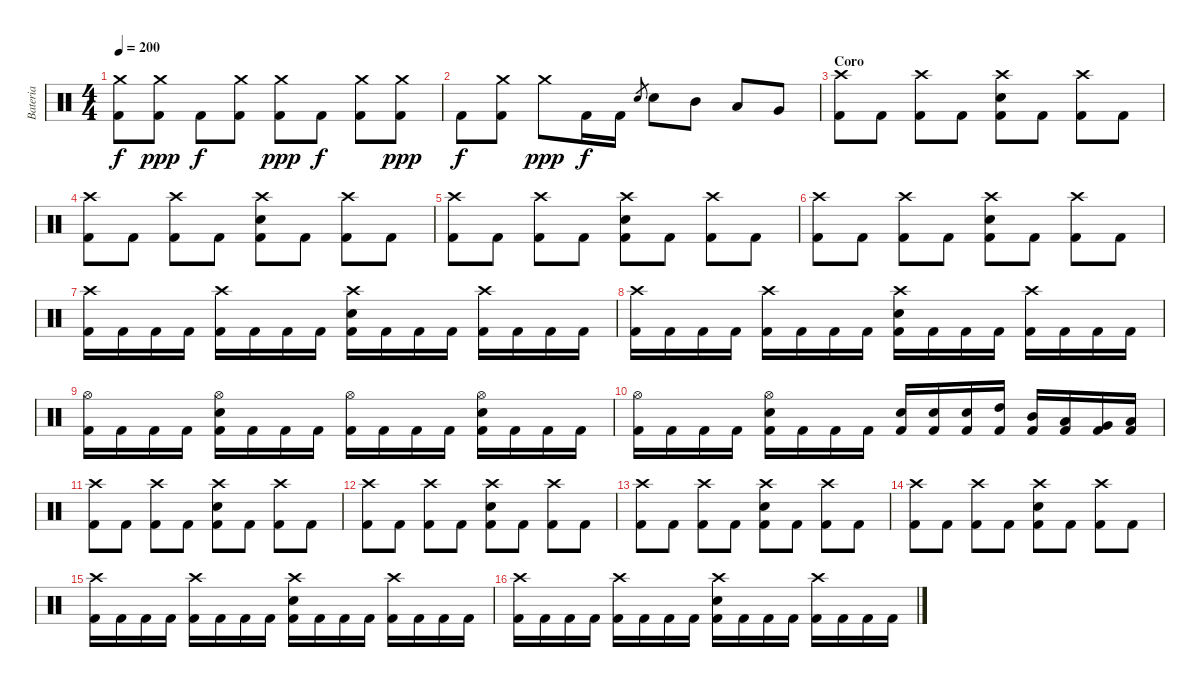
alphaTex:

\track ("Bateria" "Bateria") {instrument percussion}
\staff {score}
\articulation defaults
\ts (4 4)
\tempo 200
\clef neutral
\ks c
("Crash medium (hit)" "Kick (hit) 2").8{dy f} ("Crash medium (hit)" "Kick (hit) 2").8{dy ppp} "Kick (hit) 2".8{dy f} ("Crash medium (hit)" "Kick (hit) 2").8 ("Crash medium (hit)" "Kick (hit) 2").8{dy ppp} "Kick (hit) 2".8{dy f} ("Crash medium (hit)" "Kick (hit) 2").8 ("Crash medium (hit)" "Kick (hit) 2").8{dy ppp} |
"Kick (hit) 2".8{dy f} ("Crash medium (hit)" "Kick (hit) 2").8 "Crash medium (hit)".8{dy ppp} "Kick (hit) 2".16{dy f} "Kick (hit) 2".16 "Electric Snare (hit)".8{gr} "Electric Snare (hit)".8 "Mid Tom (hit)".8 "Low Tom (hit)".8 "Very Low Tom (hit)".8 |
\section ("" "Coro")
("Crash high (hit)" "Kick (hit) 2").8 "Kick (hit) 2".8 ("Crash high (hit)" "Kick (hit) 2").8 "Kick (hit) 2".8 ("Crash high (hit)" "Electric Snare (hit)" "Kick (hit) 2").8 "Kick (hit) 2".8 ("Crash high (hit)" "Kick (hit) 2").8 "Kick (hit) 2".8 |
("Crash high (hit)" "Kick (hit) 2").8 "Kick (hit) 2".8 ("Crash high (hit)" "Kick (hit) 2").8 "Kick (hit) 2".8 ("Crash high (hit)" "Electric Snare (hit)" "Kick (hit) 2").8 "Kick (hit) 2".8 ("Crash high (hit)" "Kick (hit) 2").8 "Kick (hit) 2".8 |
("Crash high (hit)" "Kick (hit) 2").8 "Kick (hit) 2".8 ("Crash high (hit)" "Kick (hit) 2").8 "Kick (hit) 2".8 ("Crash high (hit)" "Electric Snare (hit)" "Kick (hit) 2").8 "Kick (hit) 2".8 ("Crash high (hit)" "Kick (hit) 2").8 "Kick (hit) 2".8 |
("Crash high (hit)" "Kick (hit) 2").8 "Kick (hit) 2".8 ("Crash high (hit)" "Kick (hit) 2").8 "Kick (hit) 2".8 ("Crash high (hit)" "Electric Snare (hit)" "Kick (hit) 2").8 "Kick (hit) 2".8 ("Crash high (hit)" "Kick (hit) 2").8 "Kick (hit) 2".8 |
("Crash high (hit)" "Kick (hit) 2").16 "Kick (hit) 2".16 "Kick (hit) 2".16 "Kick (hit) 2".16 ("Crash high (hit)" "Kick (hit) 2").16 "Kick (hit) 2".16 "Kick (hit) 2".16 "Kick (hit) 2".16 ("Crash high (hit)" "Electric Snare (hit)" "Kick (hit) 2").16 "Kick (hit) 2".16 "Kick (hit) 2".16 "Kick (hit) 2".16 ("Crash high (hit)" "Kick (hit) 2").16 "Kick (hit) 2".16 "Kick (hit) 2".16 "Kick (hit) 2".16 |
("Crash high (hit)" "Kick (hit) 2").16 "Kick (hit) 2".16 "Kick (hit) 2".16 "Kick (hit) 2".16 ("Crash high (hit)" "Kick (hit) 2").16 "Kick (hit) 2".16 "Kick (hit) 2".16 "Kick (hit) 2".16 ("Crash high (hit)" "Electric Snare (hit)" "Kick (hit) 2").16 "Kick (hit) 2".16 "Kick (hit) 2".16 "Kick (hit) 2".16 ("Crash high (hit)" "Kick (hit) 2").16 "Kick (hit) 2".16 "Kick (hit) 2".16 "Kick (hit) 2".16 |
("Hi-Hat (open)" "Kick (hit) 2").16 "Kick (hit) 2".16 "Kick (hit) 2".16 "Kick (hit) 2".16 ("Hi-Hat (open)" "Electric Snare (hit)" "Kick (hit) 2").16 "Kick (hit) 2".16 "Kick (hit) 2".16 "Kick (hit) 2".16 ("Hi-Hat (open)" "Kick (hit) 2").16 "Kick (hit) 2".16 "Kick (hit) 2".16 "Kick (hit) 2".16 ("Hi-Hat (open)" "Electric Snare (hit)" "Kick (hit) 2").16 "Kick (hit) 2".16 "Kick (hit) 2".16 "Kick (hit) 2".16 |
("Hi-Hat (open)" "Kick (hit) 2").16 "Kick (hit) 2".16 "Kick (hit) 2".16 "Kick (hit) 2".16 ("Hi-Hat (open)" "Electric Snare (hit)" "Kick (hit) 2").16 "Kick (hit) 2".16 "Kick (hit) 2".16 "Kick (hit) 2".16 ("Electric Snare (hit)" "Kick (hit) 2").16 ("Electric Snare (hit)" "Kick (hit) 2").16 ("Electric Snare (hit)" "Kick (hit) 2").16 ("High Tom (hit)" "Kick (hit) 2").16 ("Mid Tom (hit)" "Kick (hit) 2").16 ("Low Tom (hit)" "Kick (hit) 2").16 ("Very Low Tom (hit)" "Kick (hit) 2").16 ("Low Floor Tom (hit)" "Kick (hit) 2").16 |
("Crash high (hit)" "Kick (hit) 2").8 "Kick (hit) 2".8 ("Crash high (hit)" "Kick (hit) 2").8 "Kick (hit) 2".8 ("Crash high (hit)" "Electric Snare (hit)" "Kick (hit) 2").8 "Kick (hit) 2".8 ("Crash high (hit)" "Kick (hit) 2").8 "Kick (hit) 2".8 |
("Crash high (hit)" "Kick (hit) 2").8 "Kick (hit) 2".8 ("Crash high (hit)" "Kick (hit) 2").8 "Kick (hit) 2".8 ("Crash high (hit)" "Electric Snare (hit)" "Kick (hit) 2").8 "Kick (hit) 2".8 ("Crash high (hit)" "Kick (hit) 2").8 "Kick (hit) 2".8 |
("Crash high (hit)" "Kick (hit) 2").8 "Kick (hit) 2".8 ("Crash high (hit)" "Kick (hit) 2").8 "Kick (hit) 2".8 ("Crash high (hit)" "Electric Snare (hit)" "Kick (hit) 2").8 "Kick (hit) 2".8 ("Crash high (hit)" "Kick (hit) 2").8 "Kick (hit) 2".8 |
("Crash high (hit)" "Kick (hit) 2").8 "Kick (hit) 2".8 ("Crash high (hit)" "Kick (hit) 2").8 "Kick (hit) 2".8 ("Crash high (hit)" "Electric Snare (hit)" "Kick (hit) 2").8 "Kick (hit) 2".8 ("Crash high (hit)" "Kick (hit) 2").8 "Kick (hit) 2".8 |
("Crash high (hit)" "Kick (hit) 2").16 "Kick (hit) 2".16 "Kick (hit) 2".16 "Kick (hit) 2".16 ("Crash high (hit)" "Kick (hit) 2").16 "Kick (hit) 2".16 "Kick (hit) 2".16 "Kick (hit) 2".16 ("Crash high (hit)" "Electric Snare (hit)" "Kick (hit) 2").16 "Kick (hit) 2".16 "Kick (hit) 2".16 "Kick (hit) 2".16 ("Crash high (hit)" "Kick (hit) 2").16 "Kick (hit) 2".16 "Kick (hit) 2".16 "Kick (hit) 2".16 |
("Crash high (hit)" "Kick (hit) 2").16 "Kick (hit) 2".16 "Kick (hit) 2".16 "Kick (hit) 2".16 ("Crash high (hit)" "Kick (hit) 2").16 "Kick (hit) 2".16 "Kick (hit) 2".16 "Kick (hit) 2".16 ("Crash high (hit)" "Electric Snare (hit)" "Kick (hit) 2").16 "Kick (hit) 2".16 "Kick (hit) 2".16 "Kick (hit) 2".16 ("Crash high (hit)" "Kick (hit) 2").16 "Kick (hit) 2".16 "Kick (hit) 2".16 "Kick (hit) 2".16
